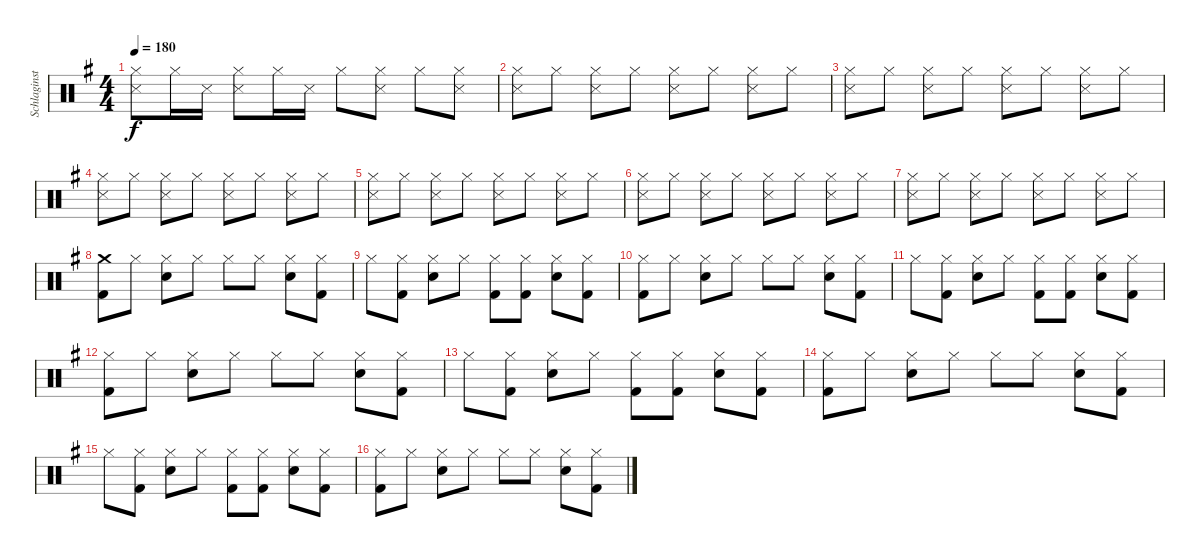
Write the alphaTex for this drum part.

\track ("Schlaginstrumente - Auswahl" "Schlaginst") {instrument percussion}
\staff {score}
\articulation defaults
\ts (4 4)
\tempo 180
\clef neutral
\ks g
("Hi-Hat (closed)" "Snare (side stick) 3").8{dy f} "Hi-Hat (closed)".16 "Snare (side stick) 3".16 ("Hi-Hat (closed)" "Snare (side stick) 3").8 "Hi-Hat (closed)".16 "Snare (side stick) 3".16 "Hi-Hat (closed)".8 ("Hi-Hat (closed)" "Snare (side stick) 3").8 "Hi-Hat (closed)".8 ("Hi-Hat (closed)" "Snare (side stick) 3").8 |
("Hi-Hat (closed)" "Snare (side stick) 3").8 "Hi-Hat (closed)".8 ("Hi-Hat (closed)" "Snare (side stick) 3").8 "Hi-Hat (closed)".8 ("Hi-Hat (closed)" "Snare (side stick) 3").8 "Hi-Hat (closed)".8 ("Hi-Hat (closed)" "Snare (side stick) 3").8 "Hi-Hat (closed)".8 |
("Hi-Hat (closed)" "Snare (side stick) 3").8 "Hi-Hat (closed)".8 ("Hi-Hat (closed)" "Snare (side stick) 3").8 "Hi-Hat (closed)".8 ("Hi-Hat (closed)" "Snare (side stick) 3").8 "Hi-Hat (closed)".8 ("Hi-Hat (closed)" "Snare (side stick) 3").8 "Hi-Hat (closed)".8 |
("Hi-Hat (closed)" "Snare (side stick) 3").8 "Hi-Hat (closed)".8 ("Hi-Hat (closed)" "Snare (side stick) 3").8 "Hi-Hat (closed)".8 ("Hi-Hat (closed)" "Snare (side stick) 3").8 "Hi-Hat (closed)".8 ("Hi-Hat (closed)" "Snare (side stick) 3").8 "Hi-Hat (closed)".8 |
("Hi-Hat (closed)" "Snare (side stick) 3").8 "Hi-Hat (closed)".8 ("Hi-Hat (closed)" "Snare (side stick) 3").8 "Hi-Hat (closed)".8 ("Hi-Hat (closed)" "Snare (side stick) 3").8 "Hi-Hat (closed)".8 ("Hi-Hat (closed)" "Snare (side stick) 3").8 "Hi-Hat (closed)".8 |
("Hi-Hat (closed)" "Snare (side stick) 3").8 "Hi-Hat (closed)".8 ("Hi-Hat (closed)" "Snare (side stick) 3").8 "Hi-Hat (closed)".8 ("Hi-Hat (closed)" "Snare (side stick) 3").8 "Hi-Hat (closed)".8 ("Hi-Hat (closed)" "Snare (side stick) 3").8 "Hi-Hat (closed)".8 |
("Hi-Hat (closed)" "Snare (side stick) 3").8 "Hi-Hat (closed)".8 ("Hi-Hat (closed)" "Snare (side stick) 3").8 "Hi-Hat (closed)".8 ("Hi-Hat (closed)" "Snare (side stick) 3").8 "Hi-Hat (closed)".8 ("Hi-Hat (closed)" "Snare (side stick) 3").8 "Hi-Hat (closed)".8 |
("Crash medium (hit)" "Kick (hit) 2").8 "Hi-Hat (closed)".8 ("Hi-Hat (closed)" "Electric Snare (hit)").8 "Hi-Hat (closed)".8 "Hi-Hat (closed)".8 "Hi-Hat (closed)".8 ("Hi-Hat (closed)" "Electric Snare (hit)").8 ("Hi-Hat (closed)" "Kick (hit) 2").8 |
"Hi-Hat (closed)".8 ("Hi-Hat (closed)" "Kick (hit) 2").8 ("Hi-Hat (closed)" "Electric Snare (hit)").8 "Hi-Hat (closed)".8 ("Hi-Hat (closed)" "Kick (hit) 2").8 ("Hi-Hat (closed)" "Kick (hit) 2").8 ("Hi-Hat (closed)" "Electric Snare (hit)").8 ("Hi-Hat (closed)" "Kick (hit) 2").8 |
("Hi-Hat (closed)" "Kick (hit) 2").8 "Hi-Hat (closed)".8 ("Hi-Hat (closed)" "Electric Snare (hit)").8 "Hi-Hat (closed)".8 "Hi-Hat (closed)".8 "Hi-Hat (closed)".8 ("Hi-Hat (closed)" "Electric Snare (hit)").8 ("Hi-Hat (closed)" "Kick (hit) 2").8 |
"Hi-Hat (closed)".8 ("Hi-Hat (closed)" "Kick (hit) 2").8 ("Hi-Hat (closed)" "Electric Snare (hit)").8 "Hi-Hat (closed)".8 ("Hi-Hat (closed)" "Kick (hit) 2").8 ("Hi-Hat (closed)" "Kick (hit) 2").8 ("Hi-Hat (closed)" "Electric Snare (hit)").8 ("Hi-Hat (closed)" "Kick (hit) 2").8 |
("Hi-Hat (closed)" "Kick (hit) 2").8 "Hi-Hat (closed)".8 ("Hi-Hat (closed)" "Electric Snare (hit)").8 "Hi-Hat (closed)".8 "Hi-Hat (closed)".8 "Hi-Hat (closed)".8 ("Hi-Hat (closed)" "Electric Snare (hit)").8 ("Hi-Hat (closed)" "Kick (hit) 2").8 |
"Hi-Hat (closed)".8 ("Hi-Hat (closed)" "Kick (hit) 2").8 ("Hi-Hat (closed)" "Electric Snare (hit)").8 "Hi-Hat (closed)".8 ("Hi-Hat (closed)" "Kick (hit) 2").8 ("Hi-Hat (closed)" "Kick (hit) 2").8 ("Hi-Hat (closed)" "Electric Snare (hit)").8 ("Hi-Hat (closed)" "Kick (hit) 2").8 |
("Hi-Hat (closed)" "Kick (hit) 2").8 "Hi-Hat (closed)".8 ("Hi-Hat (closed)" "Electric Snare (hit)").8 "Hi-Hat (closed)".8 "Hi-Hat (closed)".8 "Hi-Hat (closed)".8 ("Hi-Hat (closed)" "Electric Snare (hit)").8 ("Hi-Hat (closed)" "Kick (hit) 2").8 |
"Hi-Hat (closed)".8 ("Hi-Hat (closed)" "Kick (hit) 2").8 ("Hi-Hat (closed)" "Electric Snare (hit)").8 "Hi-Hat (closed)".8 ("Hi-Hat (closed)" "Kick (hit) 2").8 ("Hi-Hat (closed)" "Kick (hit) 2").8 ("Hi-Hat (closed)" "Electric Snare (hit)").8 ("Hi-Hat (closed)" "Kick (hit) 2").8 |
("Hi-Hat (closed)" "Kick (hit) 2").8 "Hi-Hat (closed)".8 ("Hi-Hat (closed)" "Electric Snare (hit)").8 "Hi-Hat (closed)".8 "Hi-Hat (closed)".8 "Hi-Hat (closed)".8 ("Hi-Hat (closed)" "Electric Snare (hit)").8 ("Hi-Hat (closed)" "Kick (hit) 2").8
